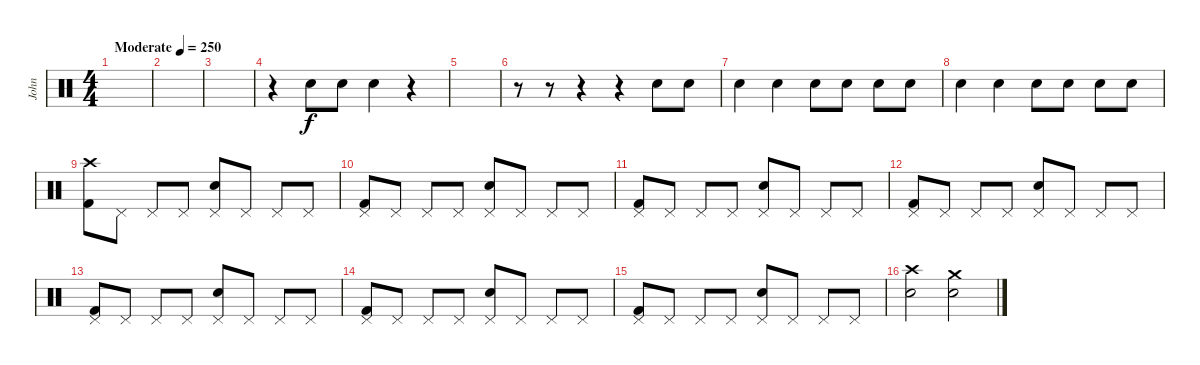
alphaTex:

\track ("John" "John") {instrument percussion}
\staff {score}
\articulation defaults
\ts (4 4)
\tempo (250 "Moderate")
\clef neutral
\ks c
|
|
|
r.4 "Electric Snare (hit)".8 "Electric Snare (hit)".8 "Electric Snare (hit)".4 r.4 |
|
r.8 r.8 r.4 r.4 "Electric Snare (hit)".8 "Electric Snare (hit)".8 |
"Electric Snare (hit)".4 "Electric Snare (hit)".4 "Electric Snare (hit)".8 "Electric Snare (hit)".8 "Electric Snare (hit)".8 "Electric Snare (hit)".8 |
"Electric Snare (hit)".4 "Electric Snare (hit)".4 "Electric Snare (hit)".8 "Electric Snare (hit)".8 "Electric Snare (hit)".8 "Electric Snare (hit)".8 |
("Crash high (hit)" "Kick (hit) 2").8 "Pedal Hi-Hat (hit)".8 "Pedal Hi-Hat (hit)".8 "Pedal Hi-Hat (hit)".8 ("Pedal Hi-Hat (hit)" "Electric Snare (hit)").8 "Pedal Hi-Hat (hit)".8 "Pedal Hi-Hat (hit)".8 "Pedal Hi-Hat (hit)".8 |
("Pedal Hi-Hat (hit)" "Kick (hit) 2").8 "Pedal Hi-Hat (hit)".8 "Pedal Hi-Hat (hit)".8 "Pedal Hi-Hat (hit)".8 ("Pedal Hi-Hat (hit)" "Electric Snare (hit)").8 "Pedal Hi-Hat (hit)".8 "Pedal Hi-Hat (hit)".8 "Pedal Hi-Hat (hit)".8 |
("Pedal Hi-Hat (hit)" "Kick (hit) 2").8 "Pedal Hi-Hat (hit)".8 "Pedal Hi-Hat (hit)".8 "Pedal Hi-Hat (hit)".8 ("Pedal Hi-Hat (hit)" "Electric Snare (hit)").8 "Pedal Hi-Hat (hit)".8 "Pedal Hi-Hat (hit)".8 "Pedal Hi-Hat (hit)".8 |
("Pedal Hi-Hat (hit)" "Kick (hit) 2").8 "Pedal Hi-Hat (hit)".8 "Pedal Hi-Hat (hit)".8 "Pedal Hi-Hat (hit)".8 ("Pedal Hi-Hat (hit)" "Electric Snare (hit)").8 "Pedal Hi-Hat (hit)".8 "Pedal Hi-Hat (hit)".8 "Pedal Hi-Hat (hit)".8 |
("Pedal Hi-Hat (hit)" "Kick (hit) 2").8 "Pedal Hi-Hat (hit)".8 "Pedal Hi-Hat (hit)".8 "Pedal Hi-Hat (hit)".8 ("Pedal Hi-Hat (hit)" "Electric Snare (hit)").8 "Pedal Hi-Hat (hit)".8 "Pedal Hi-Hat (hit)".8 "Pedal Hi-Hat (hit)".8 |
("Pedal Hi-Hat (hit)" "Kick (hit) 2").8 "Pedal Hi-Hat (hit)".8 "Pedal Hi-Hat (hit)".8 "Pedal Hi-Hat (hit)".8 ("Pedal Hi-Hat (hit)" "Electric Snare (hit)").8 "Pedal Hi-Hat (hit)".8 "Pedal Hi-Hat (hit)".8 "Pedal Hi-Hat (hit)".8 |
("Pedal Hi-Hat (hit)" "Kick (hit) 2").8 "Pedal Hi-Hat (hit)".8 "Pedal Hi-Hat (hit)".8 "Pedal Hi-Hat (hit)".8 ("Pedal Hi-Hat (hit)" "Electric Snare (hit)").8 "Pedal Hi-Hat (hit)".8 "Pedal Hi-Hat (hit)".8 "Pedal Hi-Hat (hit)".8 |
("Crash high (hit)" "Electric Snare (hit)").2 ("Crash medium (hit)" "Electric Snare (hit)").2
